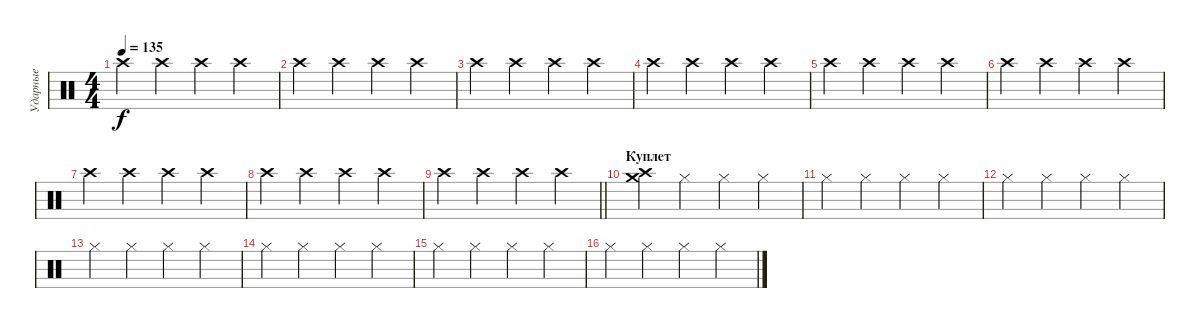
\track ("Ударные" "Ударные") {instrument percussion}
\staff {score}
\articulation defaults
\ts (4 4)
\tempo 135
\clef neutral
\ks c "Crash high (hit)".4{dy f} "Crash high (hit)".4 "Crash high (hit)".4 "Crash high (hit)".4
|
"Crash high (hit)".4 "Crash high (hit)".4 "Crash high (hit)".4 "Crash high (hit)".4 |
"Crash high (hit)".4 "Crash high (hit)".4 "Crash high (hit)".4 "Crash high (hit)".4 |
"Crash high (hit)".4 "Crash high (hit)".4 "Crash high (hit)".4 "Crash high (hit)".4 |
"Crash high (hit)".4 "Crash high (hit)".4 "Crash high (hit)".4 "Crash high (hit)".4 |
"Crash high (hit)".4 "Crash high (hit)".4 "Crash high (hit)".4 "Crash high (hit)".4 |
"Crash high (hit)".4 "Crash high (hit)".4 "Crash high (hit)".4 "Crash high (hit)".4 |
"Crash high (hit)".4 "Crash high (hit)".4 "Crash high (hit)".4 "Crash high (hit)".4 |
\barLineRight lightlight "Crash high (hit)".4 "Crash high (hit)".4 "Crash high (hit)".4 "Crash high (hit)".4
|
\section ("" "Куплет")
("Crash high (hit)" "Crash medium (hit)").4 "Hi-Hat (closed)".4 "Hi-Hat (closed)".4 "Hi-Hat (closed)".4 |
"Hi-Hat (closed)".4 "Hi-Hat (closed)".4 "Hi-Hat (closed)".4 "Hi-Hat (closed)".4 |
"Hi-Hat (closed)".4 "Hi-Hat (closed)".4 "Hi-Hat (closed)".4 "Hi-Hat (closed)".4 |
"Hi-Hat (closed)".4 "Hi-Hat (closed)".4 "Hi-Hat (closed)".4 "Hi-Hat (closed)".4 |
"Hi-Hat (closed)".4 "Hi-Hat (closed)".4 "Hi-Hat (closed)".4 "Hi-Hat (closed)".4 |
"Hi-Hat (closed)".4 "Hi-Hat (closed)".4 "Hi-Hat (closed)".4 "Hi-Hat (closed)".4 |
"Hi-Hat (closed)".4 "Hi-Hat (closed)".4 "Hi-Hat (closed)".4 "Hi-Hat (closed)".4
